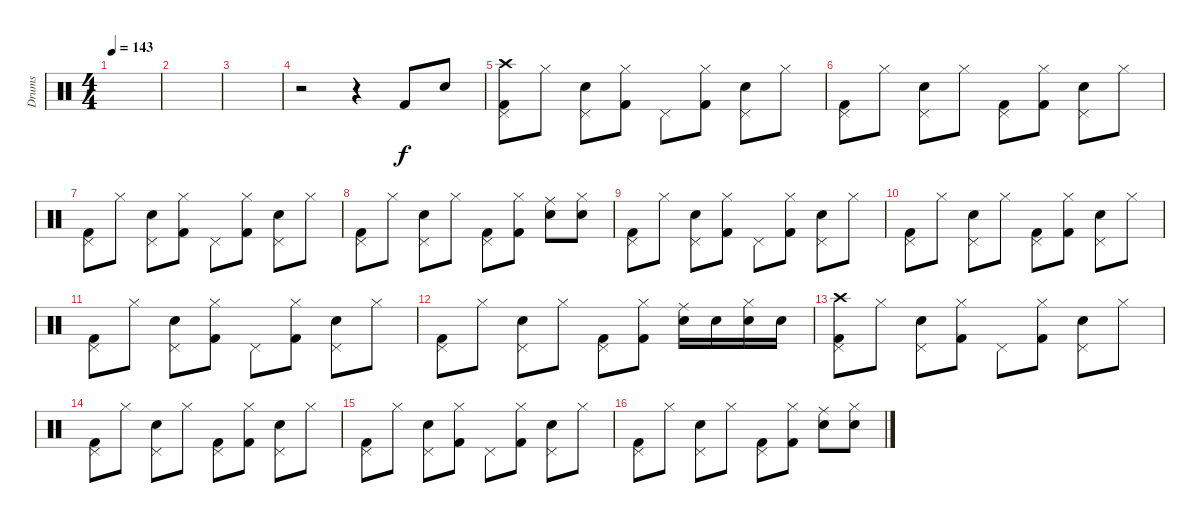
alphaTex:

\track ("Drums" "Drums") {instrument percussion}
\staff {score}
\articulation defaults
\ts (4 4)
\tempo 143
\clef neutral
\ks c
|
|
|
r.2 r.4 "Kick (hit) 2".8 "Electric Snare (hit)".8 |
("Kick (hit) 2" "Pedal Hi-Hat (hit)" "Crash high (hit)").8 "Hi-Hat (closed)".8 ("Electric Snare (hit)" "Pedal Hi-Hat (hit)").8 ("Kick (hit) 2" "Hi-Hat (closed)").8 "Pedal Hi-Hat (hit)".8 ("Kick (hit) 2" "Hi-Hat (closed)").8 ("Electric Snare (hit)" "Pedal Hi-Hat (hit)").8 "Hi-Hat (closed)".8 |
("Kick (hit) 2" "Pedal Hi-Hat (hit)").8 "Hi-Hat (closed)".8 ("Electric Snare (hit)" "Pedal Hi-Hat (hit)").8 "Hi-Hat (closed)".8 ("Kick (hit) 2" "Pedal Hi-Hat (hit)").8 ("Kick (hit) 2" "Hi-Hat (closed)").8 ("Electric Snare (hit)" "Pedal Hi-Hat (hit)").8 "Hi-Hat (closed)".8 |
("Kick (hit) 2" "Pedal Hi-Hat (hit)").8 "Hi-Hat (closed)".8 ("Electric Snare (hit)" "Pedal Hi-Hat (hit)").8 ("Kick (hit) 2" "Hi-Hat (closed)").8 "Pedal Hi-Hat (hit)".8 ("Kick (hit) 2" "Hi-Hat (closed)").8 ("Electric Snare (hit)" "Pedal Hi-Hat (hit)").8 "Hi-Hat (closed)".8 |
("Kick (hit) 2" "Pedal Hi-Hat (hit)").8 "Hi-Hat (closed)".8 ("Electric Snare (hit)" "Pedal Hi-Hat (hit)").8 "Hi-Hat (closed)".8 ("Kick (hit) 2" "Pedal Hi-Hat (hit)").8 ("Kick (hit) 2" "Hi-Hat (closed)").8 ("Electric Snare (hit)" "Ride (middle)").8 ("Electric Snare (hit)" "Hi-Hat (closed)").8 |
("Kick (hit) 2" "Pedal Hi-Hat (hit)").8 "Hi-Hat (closed)".8 ("Electric Snare (hit)" "Pedal Hi-Hat (hit)").8 ("Kick (hit) 2" "Hi-Hat (closed)").8 "Pedal Hi-Hat (hit)".8 ("Kick (hit) 2" "Hi-Hat (closed)").8 ("Electric Snare (hit)" "Pedal Hi-Hat (hit)").8 "Hi-Hat (closed)".8 |
("Kick (hit) 2" "Pedal Hi-Hat (hit)").8 "Hi-Hat (closed)".8 ("Electric Snare (hit)" "Pedal Hi-Hat (hit)").8 "Hi-Hat (closed)".8 ("Kick (hit) 2" "Pedal Hi-Hat (hit)").8 ("Kick (hit) 2" "Hi-Hat (closed)").8 ("Electric Snare (hit)" "Pedal Hi-Hat (hit)").8 "Hi-Hat (closed)".8 |
("Kick (hit) 2" "Pedal Hi-Hat (hit)").8 "Hi-Hat (closed)".8 ("Electric Snare (hit)" "Pedal Hi-Hat (hit)").8 ("Kick (hit) 2" "Hi-Hat (closed)").8 "Pedal Hi-Hat (hit)".8 ("Kick (hit) 2" "Hi-Hat (closed)").8 ("Electric Snare (hit)" "Pedal Hi-Hat (hit)").8 "Hi-Hat (closed)".8 |
("Kick (hit) 2" "Pedal Hi-Hat (hit)").8 "Hi-Hat (closed)".8 ("Electric Snare (hit)" "Pedal Hi-Hat (hit)").8 "Hi-Hat (closed)".8 ("Kick (hit) 2" "Pedal Hi-Hat (hit)").8 ("Kick (hit) 2" "Hi-Hat (closed)").8 ("Electric Snare (hit)" "Ride (middle)").16 "Snare (hit) 2".16 ("Electric Snare (hit)" "Hi-Hat (closed)").16 "Snare (hit) 2".16 |
("Kick (hit) 2" "Pedal Hi-Hat (hit)" "Crash high (hit)").8 "Hi-Hat (closed)".8 ("Electric Snare (hit)" "Pedal Hi-Hat (hit)").8 ("Kick (hit) 2" "Hi-Hat (closed)").8 "Pedal Hi-Hat (hit)".8 ("Kick (hit) 2" "Hi-Hat (closed)").8 ("Electric Snare (hit)" "Pedal Hi-Hat (hit)").8 "Hi-Hat (closed)".8 |
("Kick (hit) 2" "Pedal Hi-Hat (hit)").8 "Hi-Hat (closed)".8 ("Electric Snare (hit)" "Pedal Hi-Hat (hit)").8 "Hi-Hat (closed)".8 ("Kick (hit) 2" "Pedal Hi-Hat (hit)").8 ("Kick (hit) 2" "Hi-Hat (closed)").8 ("Electric Snare (hit)" "Pedal Hi-Hat (hit)").8 "Hi-Hat (closed)".8 |
("Kick (hit) 2" "Pedal Hi-Hat (hit)").8 "Hi-Hat (closed)".8 ("Electric Snare (hit)" "Pedal Hi-Hat (hit)").8 ("Kick (hit) 2" "Hi-Hat (closed)").8 "Pedal Hi-Hat (hit)".8 ("Kick (hit) 2" "Hi-Hat (closed)").8 ("Electric Snare (hit)" "Pedal Hi-Hat (hit)").8 "Hi-Hat (closed)".8 |
("Kick (hit) 2" "Pedal Hi-Hat (hit)").8 "Hi-Hat (closed)".8 ("Electric Snare (hit)" "Pedal Hi-Hat (hit)").8 "Hi-Hat (closed)".8 ("Kick (hit) 2" "Pedal Hi-Hat (hit)").8 ("Kick (hit) 2" "Hi-Hat (closed)").8 ("Electric Snare (hit)" "Ride (middle)").8 ("Electric Snare (hit)" "Hi-Hat (closed)").8
